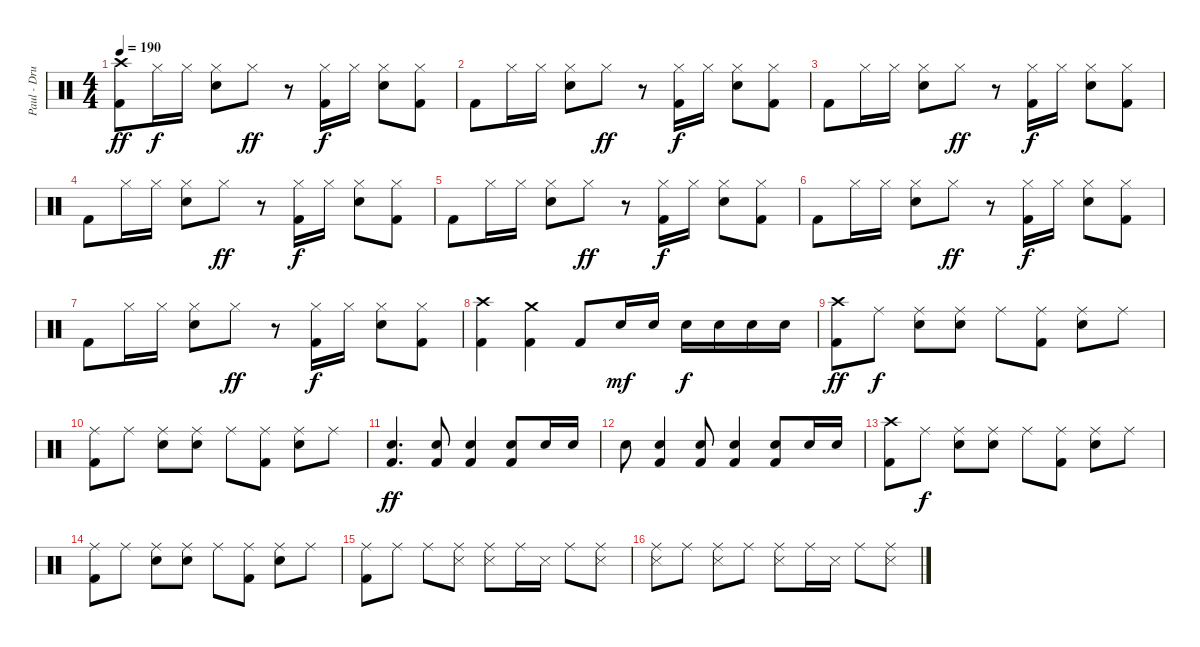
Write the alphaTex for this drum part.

\track ("Paul - Drums" "Paul - Dru") {instrument percussion}
\staff {score}
\articulation defaults
\ts (4 4)
\tempo 190
\clef neutral
\ks c
("Crash high (hit)" "Kick (hit) 2").8{dy ff} "Hi-Hat (closed)".16{dy f} "Hi-Hat (closed)".16 ("Hi-Hat (closed)" "Electric Snare (hit)").8 "Hi-Hat (closed)".8{dy ff} r.8 ("Hi-Hat (closed)" "Kick (hit) 2").16{dy f} "Hi-Hat (closed)".16 ("Hi-Hat (closed)" "Electric Snare (hit)").8 ("Hi-Hat (closed)" "Kick (hit) 2").8 |
"Kick (hit) 2".8 "Hi-Hat (closed)".16 "Hi-Hat (closed)".16 ("Hi-Hat (closed)" "Electric Snare (hit)").8 "Hi-Hat (closed)".8{dy ff} r.8 ("Hi-Hat (closed)" "Kick (hit) 2").16{dy f} "Hi-Hat (closed)".16 ("Hi-Hat (closed)" "Electric Snare (hit)").8 ("Hi-Hat (closed)" "Kick (hit) 2").8 |
"Kick (hit) 2".8 "Hi-Hat (closed)".16 "Hi-Hat (closed)".16 ("Hi-Hat (closed)" "Electric Snare (hit)").8 "Hi-Hat (closed)".8{dy ff} r.8 ("Hi-Hat (closed)" "Kick (hit) 2").16{dy f} "Hi-Hat (closed)".16 ("Hi-Hat (closed)" "Electric Snare (hit)").8 ("Hi-Hat (closed)" "Kick (hit) 2").8 |
"Kick (hit) 2".8 "Hi-Hat (closed)".16 "Hi-Hat (closed)".16 ("Hi-Hat (closed)" "Electric Snare (hit)").8 "Hi-Hat (closed)".8{dy ff} r.8 ("Hi-Hat (closed)" "Kick (hit) 2").16{dy f} "Hi-Hat (closed)".16 ("Hi-Hat (closed)" "Electric Snare (hit)").8 ("Hi-Hat (closed)" "Kick (hit) 2").8 |
"Kick (hit) 2".8 "Hi-Hat (closed)".16 "Hi-Hat (closed)".16 ("Hi-Hat (closed)" "Electric Snare (hit)").8 "Hi-Hat (closed)".8{dy ff} r.8 ("Hi-Hat (closed)" "Kick (hit) 2").16{dy f} "Hi-Hat (closed)".16 ("Hi-Hat (closed)" "Electric Snare (hit)").8 ("Hi-Hat (closed)" "Kick (hit) 2").8 |
"Kick (hit) 2".8 "Hi-Hat (closed)".16 "Hi-Hat (closed)".16 ("Hi-Hat (closed)" "Electric Snare (hit)").8 "Hi-Hat (closed)".8{dy ff} r.8 ("Hi-Hat (closed)" "Kick (hit) 2").16{dy f} "Hi-Hat (closed)".16 ("Hi-Hat (closed)" "Electric Snare (hit)").8 ("Hi-Hat (closed)" "Kick (hit) 2").8 |
"Kick (hit) 2".8 "Hi-Hat (closed)".16 "Hi-Hat (closed)".16 ("Hi-Hat (closed)" "Electric Snare (hit)").8 "Hi-Hat (closed)".8{dy ff} r.8 ("Hi-Hat (closed)" "Kick (hit) 2").16{dy f} "Hi-Hat (closed)".16 ("Hi-Hat (closed)" "Electric Snare (hit)").8 ("Hi-Hat (closed)" "Kick (hit) 2").8 |
("Crash high (hit)" "Kick (hit) 2").4 ("Crash medium (hit)" "Kick (hit) 2").4 "Kick (hit) 2".8 "Electric Snare (hit)".16{dy mf} "Electric Snare (hit)".16 "Electric Snare (hit)".16{dy f} "Electric Snare (hit)".16 "Electric Snare (hit)".16 "Electric Snare (hit)".16 |
("Crash high (hit)" "Kick (hit) 2").8{dy ff} "Ride (middle)".8{dy f} ("Ride (middle)" "Electric Snare (hit)").8 ("Ride (middle)" "Electric Snare (hit)").8 "Ride (middle)".8 ("Ride (middle)" "Kick (hit) 2").8 ("Ride (middle)" "Electric Snare (hit)").8 "Ride (middle)".8 |
("Ride (middle)" "Kick (hit) 2").8 "Ride (middle)".8 ("Ride (middle)" "Electric Snare (hit)").8 ("Ride (middle)" "Electric Snare (hit)").8 "Ride (middle)".8 ("Ride (middle)" "Kick (hit) 2").8 ("Ride (middle)" "Electric Snare (hit)").8 "Ride (middle)".8 |
("Electric Snare (hit)" "Kick (hit) 2").4{d dy ff} ("Electric Snare (hit)" "Kick (hit) 2").8 ("Electric Snare (hit)" "Kick (hit) 2").4 ("Electric Snare (hit)" "Kick (hit) 2").8 "Electric Snare (hit)".16 "Electric Snare (hit)".16 |
"Electric Snare (hit)".8 ("Electric Snare (hit)" "Kick (hit) 2").4 ("Electric Snare (hit)" "Kick (hit) 2").8 ("Electric Snare (hit)" "Kick (hit) 2").4 ("Electric Snare (hit)" "Kick (hit) 2").8 "Electric Snare (hit)".16 "Electric Snare (hit)".16 |
("Crash high (hit)" "Kick (hit) 2").8 "Ride (middle)".8{dy f} ("Ride (middle)" "Electric Snare (hit)").8 ("Ride (middle)" "Electric Snare (hit)").8 "Ride (middle)".8 ("Ride (middle)" "Kick (hit) 2").8 ("Ride (middle)" "Electric Snare (hit)").8 "Ride (middle)".8 |
("Ride (middle)" "Kick (hit) 2").8 "Ride (middle)".8 ("Ride (middle)" "Electric Snare (hit)").8 ("Ride (middle)" "Electric Snare (hit)").8 "Ride (middle)".8 ("Ride (middle)" "Kick (hit) 2").8 ("Ride (middle)" "Electric Snare (hit)").8 "Ride (middle)".8 |
("Ride (middle)" "Kick (hit) 2").8 "Ride (middle)".8 "Ride (middle)".8 ("Ride (middle)" "Snare (side stick) 3").8 ("Ride (middle)" "Snare (side stick) 3").8 "Ride (middle)".16 "Snare (side stick) 3".16 "Ride (middle)".8 ("Ride (middle)" "Snare (side stick) 3").8 |
("Ride (middle)" "Snare (side stick) 3").8 "Ride (middle)".8 ("Ride (middle)" "Snare (side stick) 3").8 "Ride (middle)".8 ("Ride (middle)" "Snare (side stick) 3").8 "Ride (middle)".16 "Snare (side stick) 3".16 "Ride (middle)".8 ("Ride (middle)" "Snare (side stick) 3").8
